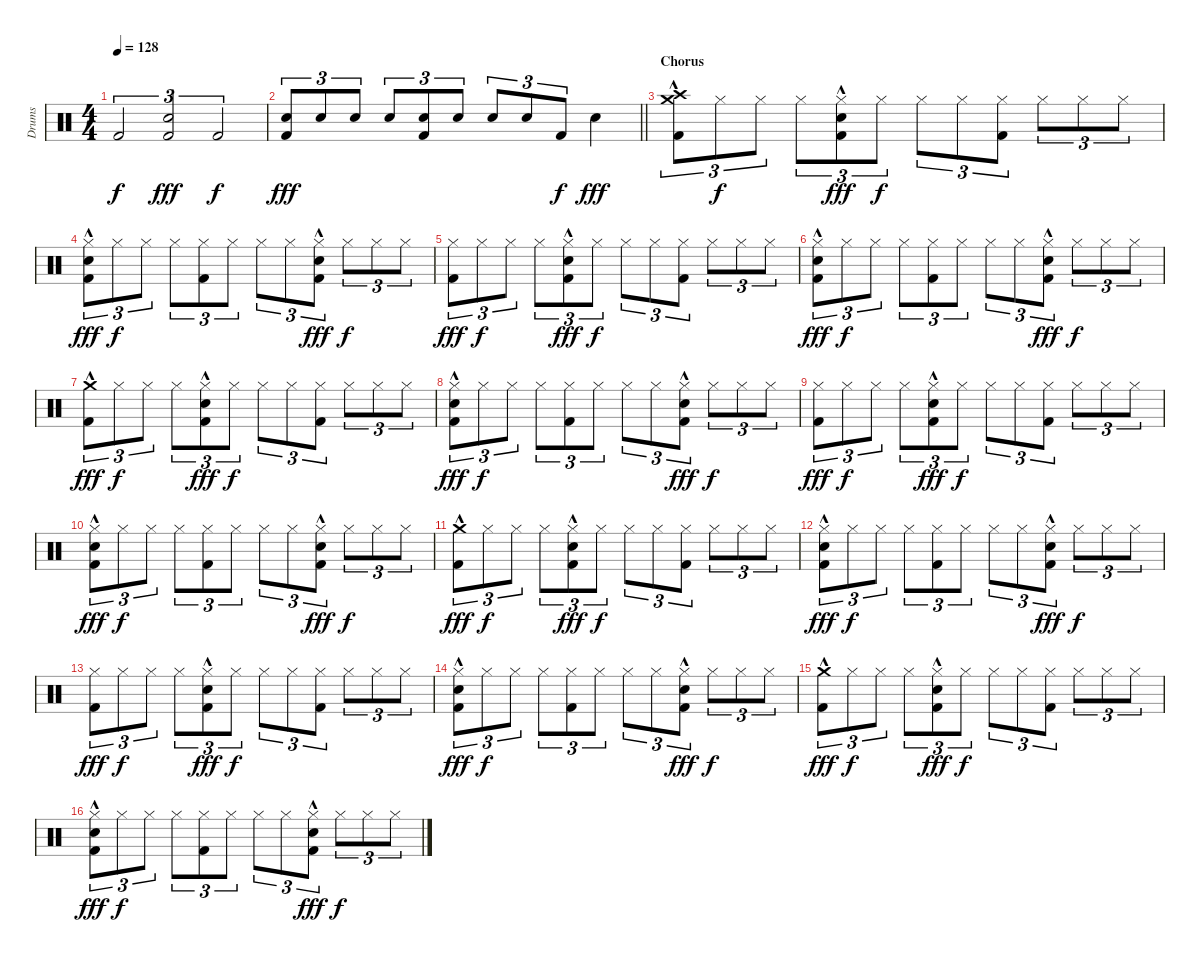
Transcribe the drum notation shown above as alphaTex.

\track ("Drums" "Drums") {instrument percussion}
\staff {score}
\articulation defaults
\ts (4 4)
\section ("" "")
\tempo 128
\clef neutral
\ks c "Kick (hit) 2".2{tu (3 2) dy f}
("Snare (hit) 2" "Kick (hit) 2").2{tu (3 2) dy fff} "Kick (hit) 2".2{tu (3 2) dy f} |
\barLineRight lightlight
("Snare (hit) 2" "Kick (hit) 2").8{tu (3 2) dy fff} "Snare (hit) 2".8{tu (3 2)} "Snare (hit) 2".8{tu (3 2)} "Snare (hit) 2".8{tu (3 2)} ("Snare (hit) 2" "Kick (hit) 2").8{tu (3 2)} "Snare (hit) 2".8{tu (3 2)} "Snare (hit) 2".8{tu (3 2)} "Snare (hit) 2".8{tu (3 2)} "Kick (hit) 2".8{tu (3 2) dy f} "Snare (hit) 2".4{dy fff} |
\section ("" "Chorus")
("Crash high (hit)"{hac} "Crash medium (hit)"{hac} "Kick (hit) 2").8{tu (3 2)} "Hi-Hat (closed)".8{tu (3 2) dy f} "Hi-Hat (closed)".8{tu (3 2)} "Hi-Hat (closed)".8{tu (3 2)} ("Hi-Hat (closed)" "Snare (hit) 2"{hac} "Kick (hit) 2").8{tu (3 2) dy fff} "Hi-Hat (closed)".8{tu (3 2) dy f} "Hi-Hat (closed)".8{tu (3 2)} "Hi-Hat (closed)".8{tu (3 2)} ("Hi-Hat (closed)" "Kick (hit) 2").8{tu (3 2)} "Hi-Hat (closed)".8{tu (3 2)} "Hi-Hat (closed)".8{tu (3 2)} "Hi-Hat (closed)".8{tu (3 2)} |
("Hi-Hat (closed)" "Snare (hit) 2"{hac} "Kick (hit) 2").8{tu (3 2) dy fff} "Hi-Hat (closed)".8{tu (3 2) dy f} "Hi-Hat (closed)".8{tu (3 2)} "Hi-Hat (closed)".8{tu (3 2)} ("Hi-Hat (closed)" "Kick (hit) 2").8{tu (3 2)} "Hi-Hat (closed)".8{tu (3 2)} "Hi-Hat (closed)".8{tu (3 2)} "Hi-Hat (closed)".8{tu (3 2)} ("Hi-Hat (closed)" "Snare (hit) 2"{hac} "Kick (hit) 2").8{tu (3 2) dy fff} "Hi-Hat (closed)".8{tu (3 2) dy f} "Hi-Hat (closed)".8{tu (3 2)} "Hi-Hat (closed)".8{tu (3 2)} |
("Hi-Hat (closed)" "Kick (hit) 2").8{tu (3 2) dy fff} "Hi-Hat (closed)".8{tu (3 2) dy f} "Hi-Hat (closed)".8{tu (3 2)} "Hi-Hat (closed)".8{tu (3 2)} ("Hi-Hat (closed)" "Snare (hit) 2"{hac} "Kick (hit) 2").8{tu (3 2) dy fff} "Hi-Hat (closed)".8{tu (3 2) dy f} "Hi-Hat (closed)".8{tu (3 2)} "Hi-Hat (closed)".8{tu (3 2)} ("Hi-Hat (closed)" "Kick (hit) 2").8{tu (3 2)} "Hi-Hat (closed)".8{tu (3 2)} "Hi-Hat (closed)".8{tu (3 2)} "Hi-Hat (closed)".8{tu (3 2)} |
("Hi-Hat (closed)" "Snare (hit) 2"{hac} "Kick (hit) 2").8{tu (3 2) dy fff} "Hi-Hat (closed)".8{tu (3 2) dy f} "Hi-Hat (closed)".8{tu (3 2)} "Hi-Hat (closed)".8{tu (3 2)} ("Hi-Hat (closed)" "Kick (hit) 2").8{tu (3 2)} "Hi-Hat (closed)".8{tu (3 2)} "Hi-Hat (closed)".8{tu (3 2)} "Hi-Hat (closed)".8{tu (3 2)} ("Hi-Hat (closed)" "Snare (hit) 2"{hac} "Kick (hit) 2").8{tu (3 2) dy fff} "Hi-Hat (closed)".8{tu (3 2) dy f} "Hi-Hat (closed)".8{tu (3 2)} "Hi-Hat (closed)".8{tu (3 2)} |
("Crash medium (hit)"{hac} "Kick (hit) 2").8{tu (3 2) dy fff} "Hi-Hat (closed)".8{tu (3 2) dy f} "Hi-Hat (closed)".8{tu (3 2)} "Hi-Hat (closed)".8{tu (3 2)} ("Hi-Hat (closed)" "Snare (hit) 2"{hac} "Kick (hit) 2").8{tu (3 2) dy fff} "Hi-Hat (closed)".8{tu (3 2) dy f} "Hi-Hat (closed)".8{tu (3 2)} "Hi-Hat (closed)".8{tu (3 2)} ("Hi-Hat (closed)" "Kick (hit) 2").8{tu (3 2)} "Hi-Hat (closed)".8{tu (3 2)} "Hi-Hat (closed)".8{tu (3 2)} "Hi-Hat (closed)".8{tu (3 2)} |
("Hi-Hat (closed)" "Snare (hit) 2"{hac} "Kick (hit) 2").8{tu (3 2) dy fff} "Hi-Hat (closed)".8{tu (3 2) dy f} "Hi-Hat (closed)".8{tu (3 2)} "Hi-Hat (closed)".8{tu (3 2)} ("Hi-Hat (closed)" "Kick (hit) 2").8{tu (3 2)} "Hi-Hat (closed)".8{tu (3 2)} "Hi-Hat (closed)".8{tu (3 2)} "Hi-Hat (closed)".8{tu (3 2)} ("Hi-Hat (closed)" "Snare (hit) 2"{hac} "Kick (hit) 2").8{tu (3 2) dy fff} "Hi-Hat (closed)".8{tu (3 2) dy f} "Hi-Hat (closed)".8{tu (3 2)} "Hi-Hat (closed)".8{tu (3 2)} |
("Hi-Hat (closed)" "Kick (hit) 2").8{tu (3 2) dy fff} "Hi-Hat (closed)".8{tu (3 2) dy f} "Hi-Hat (closed)".8{tu (3 2)} "Hi-Hat (closed)".8{tu (3 2)} ("Hi-Hat (closed)" "Snare (hit) 2"{hac} "Kick (hit) 2").8{tu (3 2) dy fff} "Hi-Hat (closed)".8{tu (3 2) dy f} "Hi-Hat (closed)".8{tu (3 2)} "Hi-Hat (closed)".8{tu (3 2)} ("Hi-Hat (closed)" "Kick (hit) 2").8{tu (3 2)} "Hi-Hat (closed)".8{tu (3 2)} "Hi-Hat (closed)".8{tu (3 2)} "Hi-Hat (closed)".8{tu (3 2)} |
("Hi-Hat (closed)" "Snare (hit) 2"{hac} "Kick (hit) 2").8{tu (3 2) dy fff} "Hi-Hat (closed)".8{tu (3 2) dy f} "Hi-Hat (closed)".8{tu (3 2)} "Hi-Hat (closed)".8{tu (3 2)} ("Hi-Hat (closed)" "Kick (hit) 2").8{tu (3 2)} "Hi-Hat (closed)".8{tu (3 2)} "Hi-Hat (closed)".8{tu (3 2)} "Hi-Hat (closed)".8{tu (3 2)} ("Hi-Hat (closed)" "Snare (hit) 2"{hac} "Kick (hit) 2").8{tu (3 2) dy fff} "Hi-Hat (closed)".8{tu (3 2) dy f} "Hi-Hat (closed)".8{tu (3 2)} "Hi-Hat (closed)".8{tu (3 2)} |
("Crash medium (hit)"{hac} "Kick (hit) 2").8{tu (3 2) dy fff} "Hi-Hat (closed)".8{tu (3 2) dy f} "Hi-Hat (closed)".8{tu (3 2)} "Hi-Hat (closed)".8{tu (3 2)} ("Hi-Hat (closed)" "Snare (hit) 2"{hac} "Kick (hit) 2").8{tu (3 2) dy fff} "Hi-Hat (closed)".8{tu (3 2) dy f} "Hi-Hat (closed)".8{tu (3 2)} "Hi-Hat (closed)".8{tu (3 2)} ("Hi-Hat (closed)" "Kick (hit) 2").8{tu (3 2)} "Hi-Hat (closed)".8{tu (3 2)} "Hi-Hat (closed)".8{tu (3 2)} "Hi-Hat (closed)".8{tu (3 2)} |
("Hi-Hat (closed)" "Snare (hit) 2"{hac} "Kick (hit) 2").8{tu (3 2) dy fff} "Hi-Hat (closed)".8{tu (3 2) dy f} "Hi-Hat (closed)".8{tu (3 2)} "Hi-Hat (closed)".8{tu (3 2)} ("Hi-Hat (closed)" "Kick (hit) 2").8{tu (3 2)} "Hi-Hat (closed)".8{tu (3 2)} "Hi-Hat (closed)".8{tu (3 2)} "Hi-Hat (closed)".8{tu (3 2)} ("Hi-Hat (closed)" "Snare (hit) 2"{hac} "Kick (hit) 2").8{tu (3 2) dy fff} "Hi-Hat (closed)".8{tu (3 2) dy f} "Hi-Hat (closed)".8{tu (3 2)} "Hi-Hat (closed)".8{tu (3 2)} |
("Hi-Hat (closed)" "Kick (hit) 2").8{tu (3 2) dy fff} "Hi-Hat (closed)".8{tu (3 2) dy f} "Hi-Hat (closed)".8{tu (3 2)} "Hi-Hat (closed)".8{tu (3 2)} ("Hi-Hat (closed)" "Snare (hit) 2"{hac} "Kick (hit) 2").8{tu (3 2) dy fff} "Hi-Hat (closed)".8{tu (3 2) dy f} "Hi-Hat (closed)".8{tu (3 2)} "Hi-Hat (closed)".8{tu (3 2)} ("Hi-Hat (closed)" "Kick (hit) 2").8{tu (3 2)} "Hi-Hat (closed)".8{tu (3 2)} "Hi-Hat (closed)".8{tu (3 2)} "Hi-Hat (closed)".8{tu (3 2)} |
("Hi-Hat (closed)" "Snare (hit) 2"{hac} "Kick (hit) 2").8{tu (3 2) dy fff} "Hi-Hat (closed)".8{tu (3 2) dy f} "Hi-Hat (closed)".8{tu (3 2)} "Hi-Hat (closed)".8{tu (3 2)} ("Hi-Hat (closed)" "Kick (hit) 2").8{tu (3 2)} "Hi-Hat (closed)".8{tu (3 2)} "Hi-Hat (closed)".8{tu (3 2)} "Hi-Hat (closed)".8{tu (3 2)} ("Hi-Hat (closed)" "Snare (hit) 2"{hac} "Kick (hit) 2").8{tu (3 2) dy fff} "Hi-Hat (closed)".8{tu (3 2) dy f} "Hi-Hat (closed)".8{tu (3 2)} "Hi-Hat (closed)".8{tu (3 2)} |
("Crash medium (hit)"{hac} "Kick (hit) 2").8{tu (3 2) dy fff} "Hi-Hat (closed)".8{tu (3 2) dy f} "Hi-Hat (closed)".8{tu (3 2)} "Hi-Hat (closed)".8{tu (3 2)} ("Hi-Hat (closed)" "Snare (hit) 2"{hac} "Kick (hit) 2").8{tu (3 2) dy fff} "Hi-Hat (closed)".8{tu (3 2) dy f} "Hi-Hat (closed)".8{tu (3 2)} "Hi-Hat (closed)".8{tu (3 2)} ("Hi-Hat (closed)" "Kick (hit) 2").8{tu (3 2)} "Hi-Hat (closed)".8{tu (3 2)} "Hi-Hat (closed)".8{tu (3 2)} "Hi-Hat (closed)".8{tu (3 2)} |
("Hi-Hat (closed)" "Snare (hit) 2"{hac} "Kick (hit) 2").8{tu (3 2) dy fff} "Hi-Hat (closed)".8{tu (3 2) dy f} "Hi-Hat (closed)".8{tu (3 2)} "Hi-Hat (closed)".8{tu (3 2)} ("Hi-Hat (closed)" "Kick (hit) 2").8{tu (3 2)} "Hi-Hat (closed)".8{tu (3 2)} "Hi-Hat (closed)".8{tu (3 2)} "Hi-Hat (closed)".8{tu (3 2)} ("Hi-Hat (closed)" "Snare (hit) 2"{hac} "Kick (hit) 2").8{tu (3 2) dy fff} "Hi-Hat (closed)".8{tu (3 2) dy f} "Hi-Hat (closed)".8{tu (3 2)} "Hi-Hat (closed)".8{tu (3 2)}
